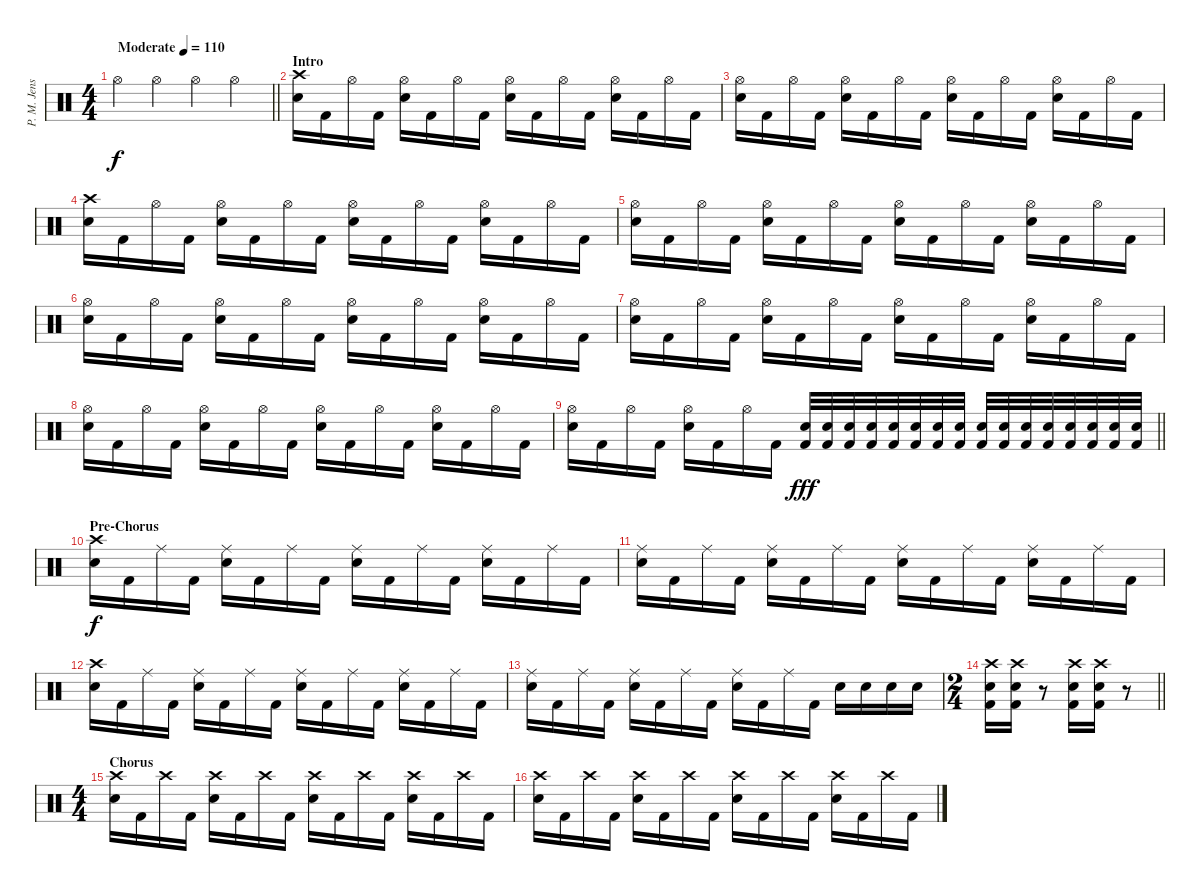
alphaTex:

\track ("P. M. Jensen" "P. M. Jens") {instrument percussion}
\staff {score}
\articulation defaults
\ts (4 4)
\tempo (110 "Moderate")
\clef neutral
\barLineRight lightlight
\ks c "Hi-Hat (open)".4{dy f} "Hi-Hat (open)".4 "Hi-Hat (open)".4 "Hi-Hat (open)".4
|
\section ("" "Intro")
("Crash high (hit)" "Electric Snare (hit)").16 "Kick (hit) 2".16 "Hi-Hat (open)".16 "Kick (hit) 2".16 ("Hi-Hat (open)" "Electric Snare (hit)").16 "Kick (hit) 2".16 "Hi-Hat (open)".16 "Kick (hit) 2".16 ("Hi-Hat (open)" "Electric Snare (hit)").16 "Kick (hit) 2".16 "Hi-Hat (open)".16 "Kick (hit) 2".16 ("Hi-Hat (open)" "Electric Snare (hit)").16 "Kick (hit) 2".16 "Hi-Hat (open)".16 "Kick (hit) 2".16 |
("Hi-Hat (open)" "Electric Snare (hit)").16 "Kick (hit) 2".16 "Hi-Hat (open)".16 "Kick (hit) 2".16 ("Hi-Hat (open)" "Electric Snare (hit)").16 "Kick (hit) 2".16 "Hi-Hat (open)".16 "Kick (hit) 2".16 ("Hi-Hat (open)" "Electric Snare (hit)").16 "Kick (hit) 2".16 "Hi-Hat (open)".16 "Kick (hit) 2".16 ("Hi-Hat (open)" "Electric Snare (hit)").16 "Kick (hit) 2".16 "Hi-Hat (open)".16 "Kick (hit) 2".16 |
("Crash high (hit)" "Electric Snare (hit)").16 "Kick (hit) 2".16 "Hi-Hat (open)".16 "Kick (hit) 2".16 ("Hi-Hat (open)" "Electric Snare (hit)").16 "Kick (hit) 2".16 "Hi-Hat (open)".16 "Kick (hit) 2".16 ("Hi-Hat (open)" "Electric Snare (hit)").16 "Kick (hit) 2".16 "Hi-Hat (open)".16 "Kick (hit) 2".16 ("Hi-Hat (open)" "Electric Snare (hit)").16 "Kick (hit) 2".16 "Hi-Hat (open)".16 "Kick (hit) 2".16 |
("Hi-Hat (open)" "Electric Snare (hit)").16 "Kick (hit) 2".16 "Hi-Hat (open)".16 "Kick (hit) 2".16 ("Hi-Hat (open)" "Electric Snare (hit)").16 "Kick (hit) 2".16 "Hi-Hat (open)".16 "Kick (hit) 2".16 ("Hi-Hat (open)" "Electric Snare (hit)").16 "Kick (hit) 2".16 "Hi-Hat (open)".16 "Kick (hit) 2".16 ("Hi-Hat (open)" "Electric Snare (hit)").16 "Kick (hit) 2".16 "Hi-Hat (open)".16 "Kick (hit) 2".16 |
("Hi-Hat (open)" "Electric Snare (hit)").16 "Kick (hit) 2".16 "Hi-Hat (open)".16 "Kick (hit) 2".16 ("Hi-Hat (open)" "Electric Snare (hit)").16 "Kick (hit) 2".16 "Hi-Hat (open)".16 "Kick (hit) 2".16 ("Hi-Hat (open)" "Electric Snare (hit)").16 "Kick (hit) 2".16 "Hi-Hat (open)".16 "Kick (hit) 2".16 ("Hi-Hat (open)" "Electric Snare (hit)").16 "Kick (hit) 2".16 "Hi-Hat (open)".16 "Kick (hit) 2".16 |
("Hi-Hat (open)" "Electric Snare (hit)").16 "Kick (hit) 2".16 "Hi-Hat (open)".16 "Kick (hit) 2".16 ("Hi-Hat (open)" "Electric Snare (hit)").16 "Kick (hit) 2".16 "Hi-Hat (open)".16 "Kick (hit) 2".16 ("Hi-Hat (open)" "Electric Snare (hit)").16 "Kick (hit) 2".16 "Hi-Hat (open)".16 "Kick (hit) 2".16 ("Hi-Hat (open)" "Electric Snare (hit)").16 "Kick (hit) 2".16 "Hi-Hat (open)".16 "Kick (hit) 2".16 |
("Hi-Hat (open)" "Electric Snare (hit)").16 "Kick (hit) 2".16 "Hi-Hat (open)".16 "Kick (hit) 2".16 ("Hi-Hat (open)" "Electric Snare (hit)").16 "Kick (hit) 2".16 "Hi-Hat (open)".16 "Kick (hit) 2".16 ("Hi-Hat (open)" "Electric Snare (hit)").16 "Kick (hit) 2".16 "Hi-Hat (open)".16 "Kick (hit) 2".16 ("Hi-Hat (open)" "Electric Snare (hit)").16 "Kick (hit) 2".16 "Hi-Hat (open)".16 "Kick (hit) 2".16 |
\barLineRight lightlight
("Hi-Hat (open)" "Electric Snare (hit)").16 "Kick (hit) 2".16 "Hi-Hat (open)".16 "Kick (hit) 2".16 ("Hi-Hat (open)" "Electric Snare (hit)").16 "Kick (hit) 2".16 "Hi-Hat (open)".16 "Kick (hit) 2".16 ("Electric Snare (hit)" "Kick (hit) 2").32{dy fff} ("Electric Snare (hit)" "Kick (hit) 2").32 ("Electric Snare (hit)" "Kick (hit) 2").32 ("Electric Snare (hit)" "Kick (hit) 2").32 ("Electric Snare (hit)" "Kick (hit) 2").32 ("Electric Snare (hit)" "Kick (hit) 2").32 ("Electric Snare (hit)" "Kick (hit) 2").32 ("Electric Snare (hit)" "Kick (hit) 2").32 ("Electric Snare (hit)" "Kick (hit) 2").32 ("Electric Snare (hit)" "Kick (hit) 2").32 ("Electric Snare (hit)" "Kick (hit) 2").32 ("Electric Snare (hit)" "Kick (hit) 2").32 ("Electric Snare (hit)" "Kick (hit) 2").32 ("Electric Snare (hit)" "Kick (hit) 2").32 ("Electric Snare (hit)" "Kick (hit) 2").32 ("Electric Snare (hit)" "Kick (hit) 2").32 |
\section ("" "Pre-Chorus")
("Crash high (hit)" "Electric Snare (hit)").16{dy f} "Kick (hit) 2".16 "Ride (middle)".16 "Kick (hit) 2".16 ("Ride (middle)" "Electric Snare (hit)").16 "Kick (hit) 2".16 "Ride (middle)".16 "Kick (hit) 2".16 ("Ride (middle)" "Electric Snare (hit)").16 "Kick (hit) 2".16 "Ride (middle)".16 "Kick (hit) 2".16 ("Ride (middle)" "Electric Snare (hit)").16 "Kick (hit) 2".16 "Ride (middle)".16 "Kick (hit) 2".16 |
("Ride (middle)" "Electric Snare (hit)").16 "Kick (hit) 2".16 "Ride (middle)".16 "Kick (hit) 2".16 ("Ride (middle)" "Electric Snare (hit)").16 "Kick (hit) 2".16 "Ride (middle)".16 "Kick (hit) 2".16 ("Ride (middle)" "Electric Snare (hit)").16 "Kick (hit) 2".16 "Ride (middle)".16 "Kick (hit) 2".16 ("Ride (middle)" "Electric Snare (hit)").16 "Kick (hit) 2".16 "Ride (middle)".16 "Kick (hit) 2".16 |
("Crash high (hit)" "Electric Snare (hit)").16 "Kick (hit) 2".16 "Ride (middle)".16 "Kick (hit) 2".16 ("Ride (middle)" "Electric Snare (hit)").16 "Kick (hit) 2".16 "Ride (middle)".16 "Kick (hit) 2".16 ("Ride (middle)" "Electric Snare (hit)").16 "Kick (hit) 2".16 "Ride (middle)".16 "Kick (hit) 2".16 ("Ride (middle)" "Electric Snare (hit)").16 "Kick (hit) 2".16 "Ride (middle)".16 "Kick (hit) 2".16 |
("Ride (middle)" "Electric Snare (hit)").16 "Kick (hit) 2".16 "Ride (middle)".16 "Kick (hit) 2".16 ("Ride (middle)" "Electric Snare (hit)").16 "Kick (hit) 2".16 "Ride (middle)".16 "Kick (hit) 2".16 ("Ride (middle)" "Electric Snare (hit)").16 "Kick (hit) 2".16 "Ride (middle)".16 "Kick (hit) 2".16 "Electric Snare (hit)".16 "Electric Snare (hit)".16 "Electric Snare (hit)".16 "Electric Snare (hit)".16 |
\ts (2 4)
\barLineRight lightlight
("Crash high (hit)" "Electric Snare (hit)" "Kick (hit) 2").16 ("Crash high (hit)" "Electric Snare (hit)" "Kick (hit) 2").16 r.8 ("Crash high (hit)" "Electric Snare (hit)" "Kick (hit) 2").16 ("Crash high (hit)" "Electric Snare (hit)" "Kick (hit) 2").16 r.8 |
\ts (4 4)
\section ("" "Chorus")
("Crash high (hit)" "Electric Snare (hit)").16 "Kick (hit) 2".16 "Crash high (hit)".16 "Kick (hit) 2".16 ("Crash high (hit)" "Electric Snare (hit)").16 "Kick (hit) 2".16 "Crash high (hit)".16 "Kick (hit) 2".16 ("Crash high (hit)" "Electric Snare (hit)").16 "Kick (hit) 2".16 "Crash high (hit)".16 "Kick (hit) 2".16 ("Crash high (hit)" "Electric Snare (hit)").16 "Kick (hit) 2".16 "Crash high (hit)".16 "Kick (hit) 2".16 |
("Crash high (hit)" "Electric Snare (hit)").16 "Kick (hit) 2".16 "Crash high (hit)".16 "Kick (hit) 2".16 ("Crash high (hit)" "Electric Snare (hit)").16 "Kick (hit) 2".16 "Crash high (hit)".16 "Kick (hit) 2".16 ("Crash high (hit)" "Electric Snare (hit)").16 "Kick (hit) 2".16 "Crash high (hit)".16 "Kick (hit) 2".16 ("Crash high (hit)" "Electric Snare (hit)").16 "Kick (hit) 2".16 "Crash high (hit)".16 "Kick (hit) 2".16
